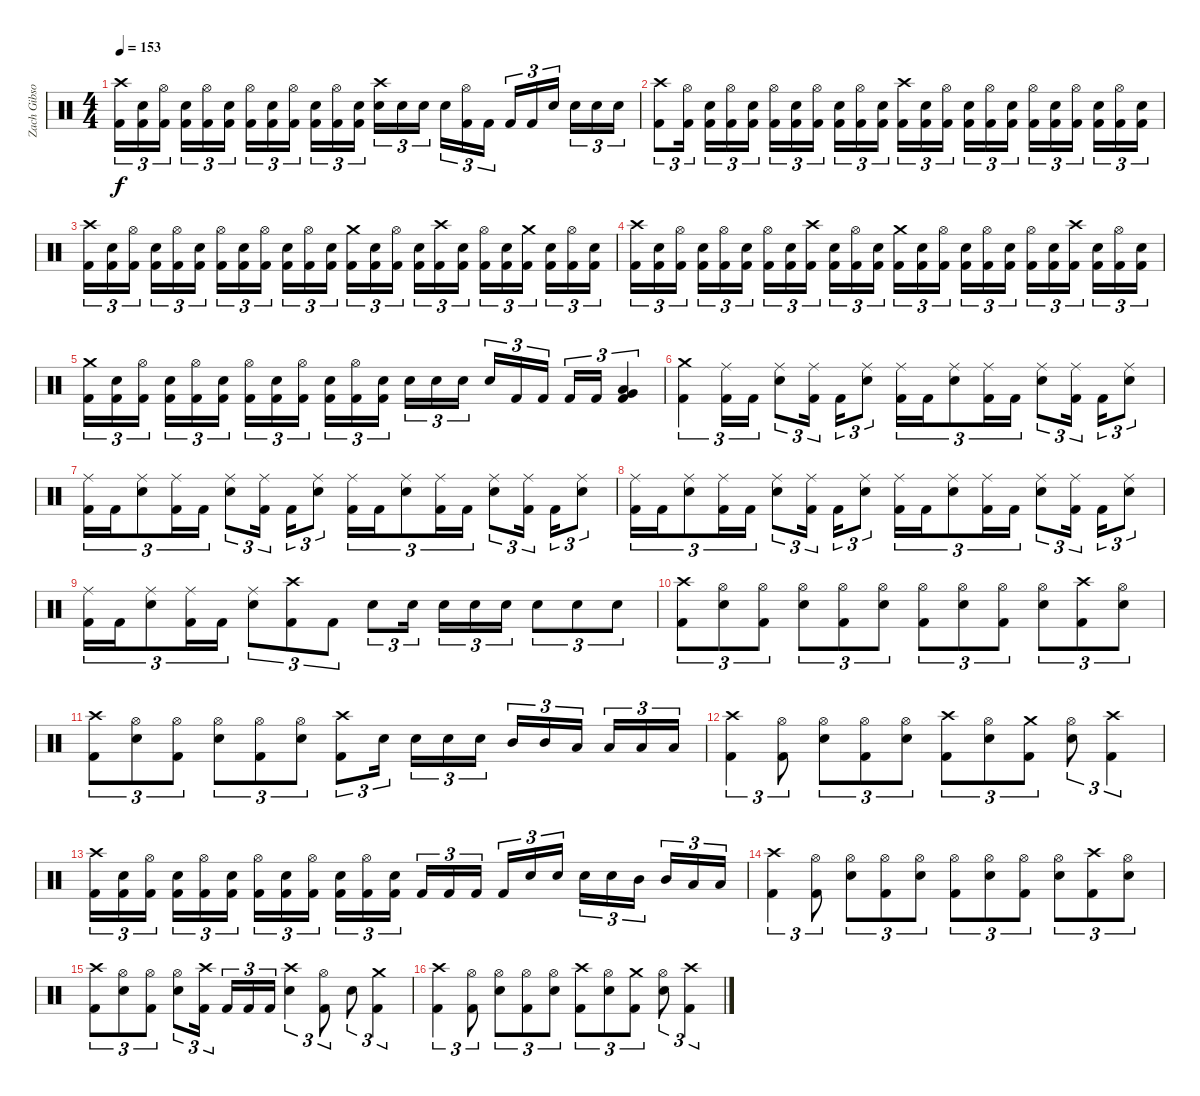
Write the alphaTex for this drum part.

\track ("Zach Gibson (Drums)" "Zach Gibso") {instrument percussion}
\staff {score}
\articulation defaults
\ts (4 4)
\tempo 153
\clef neutral
\ks c
("Crash high (hit)" "Kick (hit) 2").16{tu (3 2) dy f} ("Snare (hit) 2" "Kick (hit) 2").16{tu (3 2)} ("Hi-Hat (open)" "Kick (hit) 2").16{tu (3 2)} ("Snare (hit) 2" "Kick (hit) 2").16{tu (3 2)} ("Hi-Hat (open)" "Kick (hit) 2").16{tu (3 2)} ("Snare (hit) 2" "Kick (hit) 2").16{tu (3 2)} ("Hi-Hat (open)" "Kick (hit) 2").16{tu (3 2)} ("Snare (hit) 2" "Kick (hit) 2").16{tu (3 2)} ("Hi-Hat (open)" "Kick (hit) 2").16{tu (3 2)} ("Snare (hit) 2" "Kick (hit) 2").16{tu (3 2)} ("Hi-Hat (open)" "Kick (hit) 2").16{tu (3 2)} ("Snare (hit) 2" "Kick (hit) 2").16{tu (3 2)} ("Snare (hit) 2" "Crash high (hit)").16{tu (3 2)} "Snare (hit) 2".16{tu (3 2)} "Snare (hit) 2".16{tu (3 2)} "Snare (hit) 2".16{tu (3 2)} ("Hi-Hat (open)" "Kick (hit) 2").16{tu (3 2)} "Kick (hit) 2".16{tu (3 2)} "Kick (hit) 2".16{tu (3 2)} "Kick (hit) 2".16{tu (3 2)} "Snare (hit) 2".16{tu (3 2)} "Snare (hit) 2".16{tu (3 2)} "Snare (hit) 2".16{tu (3 2)} "Snare (hit) 2".16{tu (3 2)} |
("Crash high (hit)" "Kick (hit) 2").8{tu (3 2)} ("Hi-Hat (open)" "Kick (hit) 2").16{tu (3 2)} ("Snare (hit) 2" "Kick (hit) 2").16{tu (3 2)} ("Hi-Hat (open)" "Kick (hit) 2").16{tu (3 2)} ("Snare (hit) 2" "Kick (hit) 2").16{tu (3 2)} ("Hi-Hat (open)" "Kick (hit) 2").16{tu (3 2)} ("Snare (hit) 2" "Kick (hit) 2").16{tu (3 2)} ("Hi-Hat (open)" "Kick (hit) 2").16{tu (3 2)} ("Snare (hit) 2" "Kick (hit) 2").16{tu (3 2)} ("Hi-Hat (open)" "Kick (hit) 2").16{tu (3 2)} ("Snare (hit) 2" "Kick (hit) 2").16{tu (3 2)} ("Crash high (hit)" "Kick (hit) 2").16{tu (3 2)} ("Snare (hit) 2" "Kick (hit) 2").16{tu (3 2)} ("Hi-Hat (open)" "Kick (hit) 2").16{tu (3 2)} ("Snare (hit) 2" "Kick (hit) 2").16{tu (3 2)} ("Hi-Hat (open)" "Kick (hit) 2").16{tu (3 2)} ("Snare (hit) 2" "Kick (hit) 2").16{tu (3 2)} ("Hi-Hat (open)" "Kick (hit) 2").16{tu (3 2)} ("Snare (hit) 2" "Kick (hit) 2").16{tu (3 2)} ("Hi-Hat (open)" "Kick (hit) 2").16{tu (3 2)} ("Snare (hit) 2" "Kick (hit) 2").16{tu (3 2)} ("Hi-Hat (open)" "Kick (hit) 2").16{tu (3 2)} ("Snare (hit) 2" "Kick (hit) 2").16{tu (3 2)} |
("Crash high (hit)" "Kick (hit) 2").16{tu (3 2)} ("Snare (hit) 2" "Kick (hit) 2").16{tu (3 2)} ("Hi-Hat (open)" "Kick (hit) 2").16{tu (3 2)} ("Snare (hit) 2" "Kick (hit) 2").16{tu (3 2)} ("Hi-Hat (open)" "Kick (hit) 2").16{tu (3 2)} ("Snare (hit) 2" "Kick (hit) 2").16{tu (3 2)} ("Hi-Hat (open)" "Kick (hit) 2").16{tu (3 2)} ("Snare (hit) 2" "Kick (hit) 2").16{tu (3 2)} ("Hi-Hat (open)" "Kick (hit) 2").16{tu (3 2)} ("Snare (hit) 2" "Kick (hit) 2").16{tu (3 2)} ("Hi-Hat (open)" "Kick (hit) 2").16{tu (3 2)} ("Snare (hit) 2" "Kick (hit) 2").16{tu (3 2)} ("Crash medium (hit)" "Kick (hit) 2").16{tu (3 2)} ("Snare (hit) 2" "Kick (hit) 2").16{tu (3 2)} ("Hi-Hat (open)" "Kick (hit) 2").16{tu (3 2)} ("Snare (hit) 2" "Kick (hit) 2").16{tu (3 2)} ("Crash high (hit)" "Kick (hit) 2").16{tu (3 2)} ("Snare (hit) 2" "Kick (hit) 2").16{tu (3 2)} ("Hi-Hat (open)" "Kick (hit) 2").16{tu (3 2)} ("Snare (hit) 2" "Kick (hit) 2").16{tu (3 2)} ("Crash medium (hit)" "Kick (hit) 2").16{tu (3 2)} ("Snare (hit) 2" "Kick (hit) 2").16{tu (3 2)} ("Hi-Hat (open)" "Kick (hit) 2").16{tu (3 2)} ("Snare (hit) 2" "Kick (hit) 2").16{tu (3 2)} |
("Crash high (hit)" "Kick (hit) 2").16{tu (3 2)} ("Snare (hit) 2" "Kick (hit) 2").16{tu (3 2)} ("Hi-Hat (open)" "Kick (hit) 2").16{tu (3 2)} ("Snare (hit) 2" "Kick (hit) 2").16{tu (3 2)} ("Hi-Hat (open)" "Kick (hit) 2").16{tu (3 2)} ("Snare (hit) 2" "Kick (hit) 2").16{tu (3 2)} ("Hi-Hat (open)" "Kick (hit) 2").16{tu (3 2)} ("Snare (hit) 2" "Kick (hit) 2").16{tu (3 2)} ("Crash high (hit)" "Kick (hit) 2").16{tu (3 2)} ("Snare (hit) 2" "Kick (hit) 2").16{tu (3 2)} ("Hi-Hat (open)" "Kick (hit) 2").16{tu (3 2)} ("Snare (hit) 2" "Kick (hit) 2").16{tu (3 2)} ("Crash medium (hit)" "Kick (hit) 2").16{tu (3 2)} ("Snare (hit) 2" "Kick (hit) 2").16{tu (3 2)} ("Hi-Hat (open)" "Kick (hit) 2").16{tu (3 2)} ("Snare (hit) 2" "Kick (hit) 2").16{tu (3 2)} ("Hi-Hat (open)" "Kick (hit) 2").16{tu (3 2)} ("Snare (hit) 2" "Kick (hit) 2").16{tu (3 2)} ("Hi-Hat (open)" "Kick (hit) 2").16{tu (3 2)} ("Snare (hit) 2" "Kick (hit) 2").16{tu (3 2)} ("Crash high (hit)" "Kick (hit) 2").16{tu (3 2)} ("Snare (hit) 2" "Kick (hit) 2").16{tu (3 2)} ("Hi-Hat (open)" "Kick (hit) 2").16{tu (3 2)} ("Snare (hit) 2" "Kick (hit) 2").16{tu (3 2)} |
("Crash medium (hit)" "Kick (hit) 2").16{tu (3 2)} ("Snare (hit) 2" "Kick (hit) 2").16{tu (3 2)} ("Hi-Hat (open)" "Kick (hit) 2").16{tu (3 2)} ("Snare (hit) 2" "Kick (hit) 2").16{tu (3 2)} ("Hi-Hat (open)" "Kick (hit) 2").16{tu (3 2)} ("Snare (hit) 2" "Kick (hit) 2").16{tu (3 2)} ("Hi-Hat (open)" "Kick (hit) 2").16{tu (3 2)} ("Snare (hit) 2" "Kick (hit) 2").16{tu (3 2)} ("Hi-Hat (open)" "Kick (hit) 2").16{tu (3 2)} ("Snare (hit) 2" "Kick (hit) 2").16{tu (3 2)} ("Hi-Hat (open)" "Kick (hit) 2").16{tu (3 2)} ("Snare (hit) 2" "Kick (hit) 2").16{tu (3 2)} "Snare (hit) 2".16{tu (3 2)} "Snare (hit) 2".16{tu (3 2)} "Snare (hit) 2".16{tu (3 2)} "Snare (hit) 2".16{tu (3 2)} "Kick (hit) 2".16{tu (3 2)} "Kick (hit) 2".16{tu (3 2)} "Kick (hit) 2".16{tu (3 2)} "Kick (hit) 2".16{tu (3 2)} ("Low Floor Tom (hit)" "Very Low Tom (hit)" "Kick (hit) 2").4{tu (3 2)} |
("Crash medium (hit)" "Kick (hit) 2").4{tu (3 2)} ("Ride (middle)" "Kick (hit) 2").16{tu (3 2)} "Kick (hit) 2".16{tu (3 2)} ("Ride (middle)" "Snare (hit) 2").8{tu (3 2)} ("Ride (middle)" "Kick (hit) 2").16{tu (3 2)} "Kick (hit) 2".16{tu (3 2)} ("Ride (middle)" "Snare (hit) 2").8{tu (3 2)} ("Ride (middle)" "Kick (hit) 2").16{tu (3 2)} "Kick (hit) 2".16{tu (3 2)} ("Ride (middle)" "Snare (hit) 2").8{tu (3 2)} ("Ride (middle)" "Kick (hit) 2").16{tu (3 2)} "Kick (hit) 2".16{tu (3 2)} ("Ride (middle)" "Snare (hit) 2").8{tu (3 2)} ("Ride (middle)" "Kick (hit) 2").16{tu (3 2)} "Kick (hit) 2".16{tu (3 2)} ("Ride (middle)" "Snare (hit) 2").8{tu (3 2)} |
("Ride (middle)" "Kick (hit) 2").16{tu (3 2)} "Kick (hit) 2".16{tu (3 2)} ("Ride (middle)" "Snare (hit) 2").8{tu (3 2)} ("Ride (middle)" "Kick (hit) 2").16{tu (3 2)} "Kick (hit) 2".16{tu (3 2)} ("Ride (middle)" "Snare (hit) 2").8{tu (3 2)} ("Ride (middle)" "Kick (hit) 2").16{tu (3 2)} "Kick (hit) 2".16{tu (3 2)} ("Ride (middle)" "Snare (hit) 2").8{tu (3 2)} ("Ride (middle)" "Kick (hit) 2").16{tu (3 2)} "Kick (hit) 2".16{tu (3 2)} ("Ride (middle)" "Snare (hit) 2").8{tu (3 2)} ("Ride (middle)" "Kick (hit) 2").16{tu (3 2)} "Kick (hit) 2".16{tu (3 2)} ("Ride (middle)" "Snare (hit) 2").8{tu (3 2)} ("Ride (middle)" "Kick (hit) 2").16{tu (3 2)} "Kick (hit) 2".16{tu (3 2)} ("Ride (middle)" "Snare (hit) 2").8{tu (3 2)} |
("Ride (middle)" "Kick (hit) 2").16{tu (3 2)} "Kick (hit) 2".16{tu (3 2)} ("Ride (middle)" "Snare (hit) 2").8{tu (3 2)} ("Ride (middle)" "Kick (hit) 2").16{tu (3 2)} "Kick (hit) 2".16{tu (3 2)} ("Ride (middle)" "Snare (hit) 2").8{tu (3 2)} ("Ride (middle)" "Kick (hit) 2").16{tu (3 2)} "Kick (hit) 2".16{tu (3 2)} ("Ride (middle)" "Snare (hit) 2").8{tu (3 2)} ("Ride (middle)" "Kick (hit) 2").16{tu (3 2)} "Kick (hit) 2".16{tu (3 2)} ("Ride (middle)" "Snare (hit) 2").8{tu (3 2)} ("Ride (middle)" "Kick (hit) 2").16{tu (3 2)} "Kick (hit) 2".16{tu (3 2)} ("Ride (middle)" "Snare (hit) 2").8{tu (3 2)} ("Ride (middle)" "Kick (hit) 2").16{tu (3 2)} "Kick (hit) 2".16{tu (3 2)} ("Ride (middle)" "Snare (hit) 2").8{tu (3 2)} |
("Ride (middle)" "Kick (hit) 2").16{tu (3 2)} "Kick (hit) 2".16{tu (3 2)} ("Ride (middle)" "Snare (hit) 2").8{tu (3 2)} ("Ride (middle)" "Kick (hit) 2").16{tu (3 2)} "Kick (hit) 2".16{tu (3 2)} ("Ride (middle)" "Snare (hit) 2").8{tu (3 2)} ("Crash high (hit)" "Kick (hit) 2").8{tu (3 2)} "Kick (hit) 2".8{tu (3 2)} "Snare (hit) 2".8{tu (3 2)} "Snare (hit) 2".16{tu (3 2)} "Snare (hit) 2".16{tu (3 2)} "Snare (hit) 2".16{tu (3 2)} "Snare (hit) 2".16{tu (3 2)} "Snare (hit) 2".8{tu (3 2)} "Snare (hit) 2".8{tu (3 2)} "Snare (hit) 2".8{tu (3 2)} |
("Crash high (hit)" "Kick (hit) 2").8{tu (3 2)} ("Hi-Hat (open)" "Snare (hit) 2").8{tu (3 2)} ("Hi-Hat (open)" "Kick (hit) 2").8{tu (3 2)} ("Hi-Hat (open)" "Snare (hit) 2").8{tu (3 2)} ("Hi-Hat (open)" "Kick (hit) 2").8{tu (3 2)} ("Hi-Hat (open)" "Snare (hit) 2").8{tu (3 2)} ("Hi-Hat (open)" "Kick (hit) 2").8{tu (3 2)} ("Hi-Hat (open)" "Snare (hit) 2").8{tu (3 2)} ("Hi-Hat (open)" "Kick (hit) 2").8{tu (3 2)} ("Hi-Hat (open)" "Snare (hit) 2").8{tu (3 2)} ("Crash high (hit)" "Kick (hit) 2").8{tu (3 2)} ("Hi-Hat (open)" "Snare (hit) 2").8{tu (3 2)} |
("Crash high (hit)" "Kick (hit) 2").8{tu (3 2)} ("Hi-Hat (open)" "Snare (hit) 2").8{tu (3 2)} ("Hi-Hat (open)" "Kick (hit) 2").8{tu (3 2)} ("Hi-Hat (open)" "Snare (hit) 2").8{tu (3 2)} ("Hi-Hat (open)" "Kick (hit) 2").8{tu (3 2)} ("Hi-Hat (open)" "Snare (hit) 2").8{tu (3 2)} ("Crash high (hit)" "Kick (hit) 2").8{tu (3 2)} "Snare (hit) 2".16{tu (3 2)} "Snare (hit) 2".16{tu (3 2)} "Snare (hit) 2".16{tu (3 2)} "Snare (hit) 2".16{tu (3 2)} "Mid Tom (hit)".16{tu (3 2)} "Mid Tom (hit)".16{tu (3 2)} "Low Tom (hit)".16{tu (3 2)} "Low Tom (hit)".16{tu (3 2)} "Low Floor Tom (hit)".16{tu (3 2)} "Low Floor Tom (hit)".16{tu (3 2)} |
("Crash high (hit)" "Kick (hit) 2").4{tu (3 2)} ("Hi-Hat (open)" "Kick (hit) 2").8{tu (3 2)} ("Hi-Hat (open)" "Snare (hit) 2").8{tu (3 2)} ("Hi-Hat (open)" "Kick (hit) 2").8{tu (3 2)} ("Hi-Hat (open)" "Snare (hit) 2").8{tu (3 2)} ("Crash high (hit)" "Kick (hit) 2").8{tu (3 2)} ("Hi-Hat (open)" "Snare (hit) 2").8{tu (3 2)} ("Crash medium (hit)" "Kick (hit) 2").8{tu (3 2)} ("Hi-Hat (open)" "Snare (hit) 2").8{tu (3 2)} ("Crash high (hit)" "Kick (hit) 2").4{tu (3 2)} |
("Crash high (hit)" "Kick (hit) 2").16{tu (3 2)} ("Snare (hit) 2" "Kick (hit) 2").16{tu (3 2)} ("Hi-Hat (open)" "Kick (hit) 2").16{tu (3 2)} ("Snare (hit) 2" "Kick (hit) 2").16{tu (3 2)} ("Hi-Hat (open)" "Kick (hit) 2").16{tu (3 2)} ("Snare (hit) 2" "Kick (hit) 2").16{tu (3 2)} ("Hi-Hat (open)" "Kick (hit) 2").16{tu (3 2)} ("Snare (hit) 2" "Kick (hit) 2").16{tu (3 2)} ("Hi-Hat (open)" "Kick (hit) 2").16{tu (3 2)} ("Snare (hit) 2" "Kick (hit) 2").16{tu (3 2)} ("Hi-Hat (open)" "Kick (hit) 2").16{tu (3 2)} ("Snare (hit) 2" "Kick (hit) 2").16{tu (3 2)} "Kick (hit) 2".16{tu (3 2)} "Kick (hit) 2".16{tu (3 2)} "Kick (hit) 2".16{tu (3 2)} "Kick (hit) 2".16{tu (3 2)} "Snare (hit) 2".16{tu (3 2)} "Snare (hit) 2".16{tu (3 2)} "Snare (hit) 2".16{tu (3 2)} "Snare (hit) 2".16{tu (3 2)} "Mid Tom (hit)".16{tu (3 2)} "Mid Tom (hit)".16{tu (3 2)} "Low Tom (hit)".16{tu (3 2)} "Low Floor Tom (hit)".16{tu (3 2)} |
("Crash high (hit)" "Kick (hit) 2").4{tu (3 2)} ("Hi-Hat (open)" "Kick (hit) 2").8{tu (3 2)} ("Hi-Hat (open)" "Snare (hit) 2").8{tu (3 2)} ("Hi-Hat (open)" "Kick (hit) 2").8{tu (3 2)} ("Hi-Hat (open)" "Snare (hit) 2").8{tu (3 2)} ("Hi-Hat (open)" "Kick (hit) 2").8{tu (3 2)} ("Hi-Hat (open)" "Snare (hit) 2").8{tu (3 2)} ("Hi-Hat (open)" "Kick (hit) 2").8{tu (3 2)} ("Hi-Hat (open)" "Snare (hit) 2").8{tu (3 2)} ("Crash high (hit)" "Kick (hit) 2").8{tu (3 2)} ("Hi-Hat (open)" "Snare (hit) 2").8{tu (3 2)} |
("Crash high (hit)" "Kick (hit) 2").8{tu (3 2)} ("Hi-Hat (open)" "Snare (hit) 2").8{tu (3 2)} ("Hi-Hat (open)" "Kick (hit) 2").8{tu (3 2)} ("Hi-Hat (open)" "Snare (hit) 2").8{tu (3 2)} ("Crash high (hit)" "Kick (hit) 2").16{tu (3 2)} "Kick (hit) 2".16{tu (3 2)} "Kick (hit) 2".16{tu (3 2)} "Kick (hit) 2".16{tu (3 2)} ("Crash high (hit)" "Snare (hit) 2").4{tu (3 2)} ("Hi-Hat (open)" "Kick (hit) 2").8{tu (3 2)} "Snare (hit) 2".8{tu (3 2)} ("Crash medium (hit)" "Kick (hit) 2").4{tu (3 2)} |
("Crash high (hit)" "Kick (hit) 2").4{tu (3 2)} ("Hi-Hat (open)" "Kick (hit) 2").8{tu (3 2)} ("Hi-Hat (open)" "Snare (hit) 2").8{tu (3 2)} ("Hi-Hat (open)" "Kick (hit) 2").8{tu (3 2)} ("Hi-Hat (open)" "Snare (hit) 2").8{tu (3 2)} ("Crash high (hit)" "Kick (hit) 2").8{tu (3 2)} ("Hi-Hat (open)" "Snare (hit) 2").8{tu (3 2)} ("Crash medium (hit)" "Kick (hit) 2").8{tu (3 2)} ("Hi-Hat (open)" "Snare (hit) 2").8{tu (3 2)} ("Crash high (hit)" "Kick (hit) 2").4{tu (3 2)}
